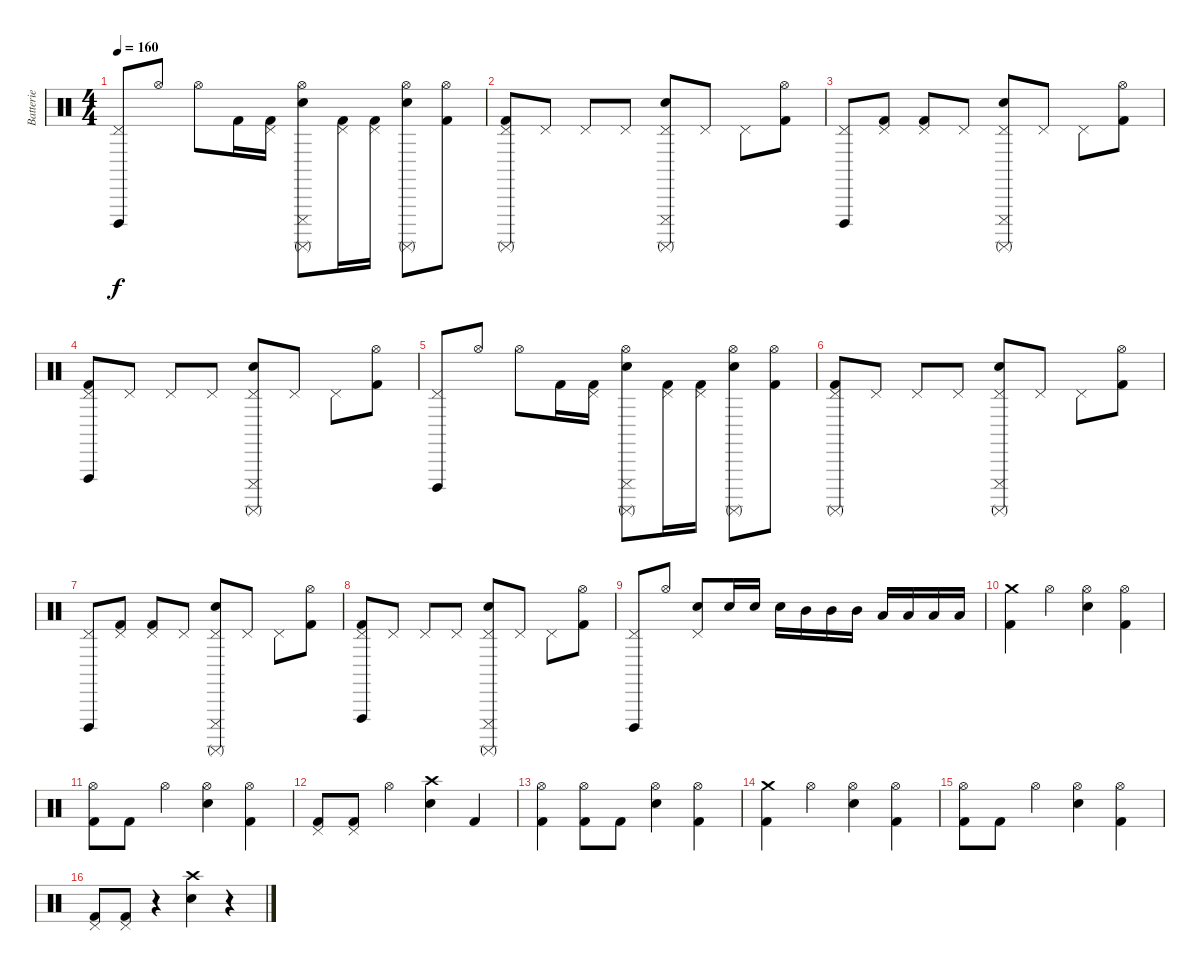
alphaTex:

\track ("Batterie" "Batterie") {instrument percussion}
\staff {score}
\articulation defaults
\ts (4 4)
\tempo 160
\clef neutral
\ks c
("Cuica (open)" "Pedal Hi-Hat (hit)").8{dy f} "Hi-Hat (open)".8 "Hi-Hat (open)".8 "Kick (hit) 2".16 ("Pedal Hi-Hat (hit)" "Kick (hit) 2").16 ("Surdo (mute)" "Cuica (mute)" "Hi-Hat (open)" "Electric Snare (hit)").8 ("Pedal Hi-Hat (hit)" "Kick (hit) 2").16 ("Pedal Hi-Hat (hit)" "Kick (hit) 2").16 ("Surdo (mute)" "Hi-Hat (open)" "Electric Snare (hit)").8 ("Hi-Hat (open)" "Kick (hit) 2").8 |
("Surdo (mute)" "Pedal Hi-Hat (hit)" "Kick (hit) 2").8 "Pedal Hi-Hat (hit)".8 "Pedal Hi-Hat (hit)".8 "Pedal Hi-Hat (hit)".8 ("Surdo (mute)" "Cuica (mute)" "Pedal Hi-Hat (hit)" "Electric Snare (hit)").8 "Pedal Hi-Hat (hit)".8 "Pedal Hi-Hat (hit)".8 ("Hi-Hat (open)" "Kick (hit) 2").8 |
("Cuica (open)" "Pedal Hi-Hat (hit)").8 ("Pedal Hi-Hat (hit)" "Kick (hit) 2").8 ("Pedal Hi-Hat (hit)" "Kick (hit) 2").8 "Pedal Hi-Hat (hit)".8 ("Surdo (mute)" "Cuica (mute)" "Pedal Hi-Hat (hit)" "Electric Snare (hit)").8 "Pedal Hi-Hat (hit)".8 "Pedal Hi-Hat (hit)".8 ("Hi-Hat (open)" "Kick (hit) 2").8 |
("Vibraslap (hit)" "Pedal Hi-Hat (hit)" "Kick (hit) 2").8 "Pedal Hi-Hat (hit)".8 "Pedal Hi-Hat (hit)".8 "Pedal Hi-Hat (hit)".8 ("Surdo (mute)" "Cuica (mute)" "Pedal Hi-Hat (hit)" "Electric Snare (hit)").8 "Pedal Hi-Hat (hit)".8 "Pedal Hi-Hat (hit)".8 ("Hi-Hat (open)" "Kick (hit) 2").8 |
("Cuica (open)" "Pedal Hi-Hat (hit)").8 "Hi-Hat (open)".8 "Hi-Hat (open)".8 "Kick (hit) 2".16 ("Pedal Hi-Hat (hit)" "Kick (hit) 2").16 ("Surdo (mute)" "Cuica (mute)" "Hi-Hat (open)" "Electric Snare (hit)").8 ("Pedal Hi-Hat (hit)" "Kick (hit) 2").16 ("Pedal Hi-Hat (hit)" "Kick (hit) 2").16 ("Surdo (mute)" "Hi-Hat (open)" "Electric Snare (hit)").8 ("Hi-Hat (open)" "Kick (hit) 2").8 |
("Surdo (mute)" "Pedal Hi-Hat (hit)" "Kick (hit) 2").8 "Pedal Hi-Hat (hit)".8 "Pedal Hi-Hat (hit)".8 "Pedal Hi-Hat (hit)".8 ("Surdo (mute)" "Cuica (mute)" "Pedal Hi-Hat (hit)" "Electric Snare (hit)").8 "Pedal Hi-Hat (hit)".8 "Pedal Hi-Hat (hit)".8 ("Hi-Hat (open)" "Kick (hit) 2").8 |
("Cuica (open)" "Pedal Hi-Hat (hit)").8 ("Pedal Hi-Hat (hit)" "Kick (hit) 2").8 ("Pedal Hi-Hat (hit)" "Kick (hit) 2").8 "Pedal Hi-Hat (hit)".8 ("Surdo (mute)" "Cuica (mute)" "Pedal Hi-Hat (hit)" "Electric Snare (hit)").8 "Pedal Hi-Hat (hit)".8 "Pedal Hi-Hat (hit)".8 ("Hi-Hat (open)" "Kick (hit) 2").8 |
("Vibraslap (hit)" "Pedal Hi-Hat (hit)" "Kick (hit) 2").8 "Pedal Hi-Hat (hit)".8 "Pedal Hi-Hat (hit)".8 "Pedal Hi-Hat (hit)".8 ("Surdo (mute)" "Cuica (mute)" "Pedal Hi-Hat (hit)" "Electric Snare (hit)").8 "Pedal Hi-Hat (hit)".8 "Pedal Hi-Hat (hit)".8 ("Hi-Hat (open)" "Kick (hit) 2").8 |
("Cuica (open)" "Pedal Hi-Hat (hit)").8 "Hi-Hat (open)".8 ("Pedal Hi-Hat (hit)" "Electric Snare (hit)").8 "Electric Snare (hit)".16 "Electric Snare (hit)".16 "Electric Snare (hit)".16 "Mid Tom (hit)".16 "Mid Tom (hit)".16 "Mid Tom (hit)".16 "Low Tom (hit)".16 "Low Tom (hit)".16 "Low Tom (hit)".16 "Low Tom (hit)".16 |
("Crash medium (hit)" "Kick (hit) 2").4 "Hi-Hat (open)".4 ("Hi-Hat (open)" "Electric Snare (hit)").4 ("Hi-Hat (open)" "Kick (hit) 2").4 |
("Hi-Hat (open)" "Kick (hit) 2").8 "Kick (hit) 2".8 "Hi-Hat (open)".4 ("Hi-Hat (open)" "Electric Snare (hit)").4 ("Hi-Hat (open)" "Kick (hit) 2").4 |
("Kick (hit) 2" "Pedal Hi-Hat (hit)").8 ("Kick (hit) 2" "Pedal Hi-Hat (hit)").8 "Hi-Hat (open)".4 ("Crash high (hit)" "Electric Snare (hit)").4 "Kick (hit) 2".4 |
("Hi-Hat (open)" "Kick (hit) 2").4 ("Hi-Hat (open)" "Kick (hit) 2").8 "Kick (hit) 2".8 ("Hi-Hat (open)" "Electric Snare (hit)").4 ("Hi-Hat (open)" "Kick (hit) 2").4 |
("Crash medium (hit)" "Kick (hit) 2").4 "Hi-Hat (open)".4 ("Hi-Hat (open)" "Electric Snare (hit)").4 ("Hi-Hat (open)" "Kick (hit) 2").4 |
("Hi-Hat (open)" "Kick (hit) 2").8 "Kick (hit) 2".8 "Hi-Hat (open)".4 ("Hi-Hat (open)" "Electric Snare (hit)").4 ("Hi-Hat (open)" "Kick (hit) 2").4 |
("Kick (hit) 2" "Pedal Hi-Hat (hit)").8 ("Kick (hit) 2" "Pedal Hi-Hat (hit)").8 r.4 ("Crash high (hit)" "Electric Snare (hit)").4 r.4
